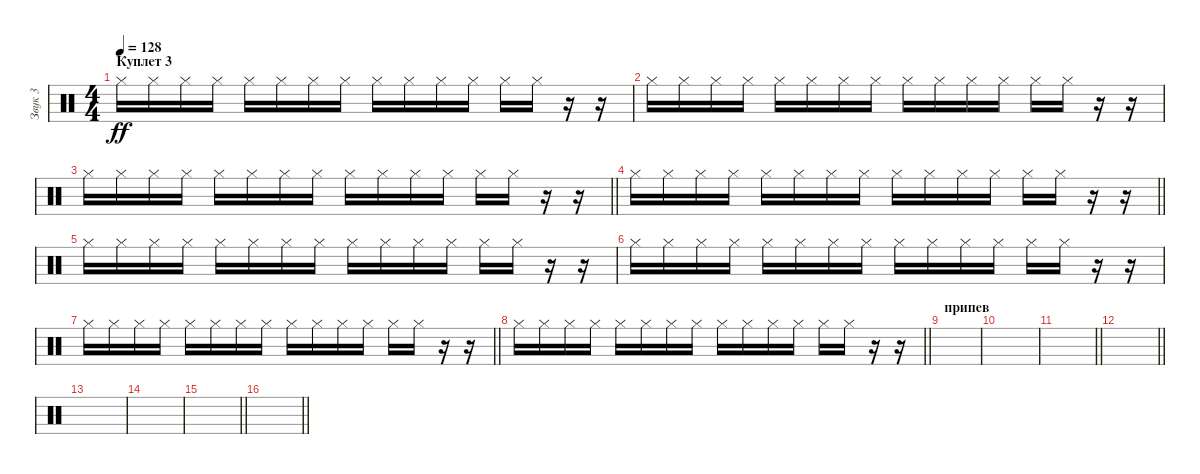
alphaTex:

\track ("Звук 3" "Звук 3") {instrument percussion}
\staff {score}
\articulation defaults
\ts (4 4)
\section ("" "Куплет 3")
\tempo 128
\clef neutral
\ks c "Hi-Hat (closed)".16{dy ff} "Hi-Hat (closed)".16 "Hi-Hat (closed)".16 "Hi-Hat (closed)".16 "Hi-Hat (closed)".16 "Hi-Hat (closed)".16 "Hi-Hat (closed)".16 "Hi-Hat (closed)".16 "Hi-Hat (closed)".16 "Hi-Hat (closed)".16 "Hi-Hat (closed)".16 "Hi-Hat (closed)".16 "Hi-Hat (closed)".16 "Hi-Hat (closed)".16
r.16 r.16 |
"Hi-Hat (closed)".16 "Hi-Hat (closed)".16 "Hi-Hat (closed)".16 "Hi-Hat (closed)".16 "Hi-Hat (closed)".16 "Hi-Hat (closed)".16 "Hi-Hat (closed)".16 "Hi-Hat (closed)".16 "Hi-Hat (closed)".16 "Hi-Hat (closed)".16 "Hi-Hat (closed)".16 "Hi-Hat (closed)".16 "Hi-Hat (closed)".16 "Hi-Hat (closed)".16 r.16 r.16 |
\barLineRight lightlight "Hi-Hat (closed)".16 "Hi-Hat (closed)".16 "Hi-Hat (closed)".16 "Hi-Hat (closed)".16 "Hi-Hat (closed)".16 "Hi-Hat (closed)".16 "Hi-Hat (closed)".16 "Hi-Hat (closed)".16 "Hi-Hat (closed)".16 "Hi-Hat (closed)".16 "Hi-Hat (closed)".16 "Hi-Hat (closed)".16 "Hi-Hat (closed)".16 "Hi-Hat (closed)".16
r.16 r.16 |
\barLineRight lightlight "Hi-Hat (closed)".16 "Hi-Hat (closed)".16 "Hi-Hat (closed)".16 "Hi-Hat (closed)".16 "Hi-Hat (closed)".16 "Hi-Hat (closed)".16 "Hi-Hat (closed)".16 "Hi-Hat (closed)".16 "Hi-Hat (closed)".16 "Hi-Hat (closed)".16 "Hi-Hat (closed)".16 "Hi-Hat (closed)".16 "Hi-Hat (closed)".16 "Hi-Hat (closed)".16
r.16 r.16 |
"Hi-Hat (closed)".16 "Hi-Hat (closed)".16 "Hi-Hat (closed)".16 "Hi-Hat (closed)".16 "Hi-Hat (closed)".16 "Hi-Hat (closed)".16 "Hi-Hat (closed)".16 "Hi-Hat (closed)".16 "Hi-Hat (closed)".16 "Hi-Hat (closed)".16 "Hi-Hat (closed)".16 "Hi-Hat (closed)".16 "Hi-Hat (closed)".16 "Hi-Hat (closed)".16 r.16 r.16 |
"Hi-Hat (closed)".16 "Hi-Hat (closed)".16 "Hi-Hat (closed)".16 "Hi-Hat (closed)".16 "Hi-Hat (closed)".16 "Hi-Hat (closed)".16 "Hi-Hat (closed)".16 "Hi-Hat (closed)".16 "Hi-Hat (closed)".16 "Hi-Hat (closed)".16 "Hi-Hat (closed)".16 "Hi-Hat (closed)".16 "Hi-Hat (closed)".16 "Hi-Hat (closed)".16 r.16 r.16 |
\barLineRight lightlight "Hi-Hat (closed)".16 "Hi-Hat (closed)".16 "Hi-Hat (closed)".16 "Hi-Hat (closed)".16 "Hi-Hat (closed)".16 "Hi-Hat (closed)".16 "Hi-Hat (closed)".16 "Hi-Hat (closed)".16 "Hi-Hat (closed)".16 "Hi-Hat (closed)".16 "Hi-Hat (closed)".16 "Hi-Hat (closed)".16 "Hi-Hat (closed)".16 "Hi-Hat (closed)".16
r.16 r.16 |
\barLineRight lightlight "Hi-Hat (closed)".16 "Hi-Hat (closed)".16 "Hi-Hat (closed)".16 "Hi-Hat (closed)".16 "Hi-Hat (closed)".16 "Hi-Hat (closed)".16 "Hi-Hat (closed)".16 "Hi-Hat (closed)".16 "Hi-Hat (closed)".16 "Hi-Hat (closed)".16 "Hi-Hat (closed)".16 "Hi-Hat (closed)".16 "Hi-Hat (closed)".16 "Hi-Hat (closed)".16
r.16 r.16 |
\section ("" "припев")
|
|
\barLineRight lightlight
|
\barLineRight lightlight
|
|
|
\barLineRight lightlight
|
\barLineRight lightlight
